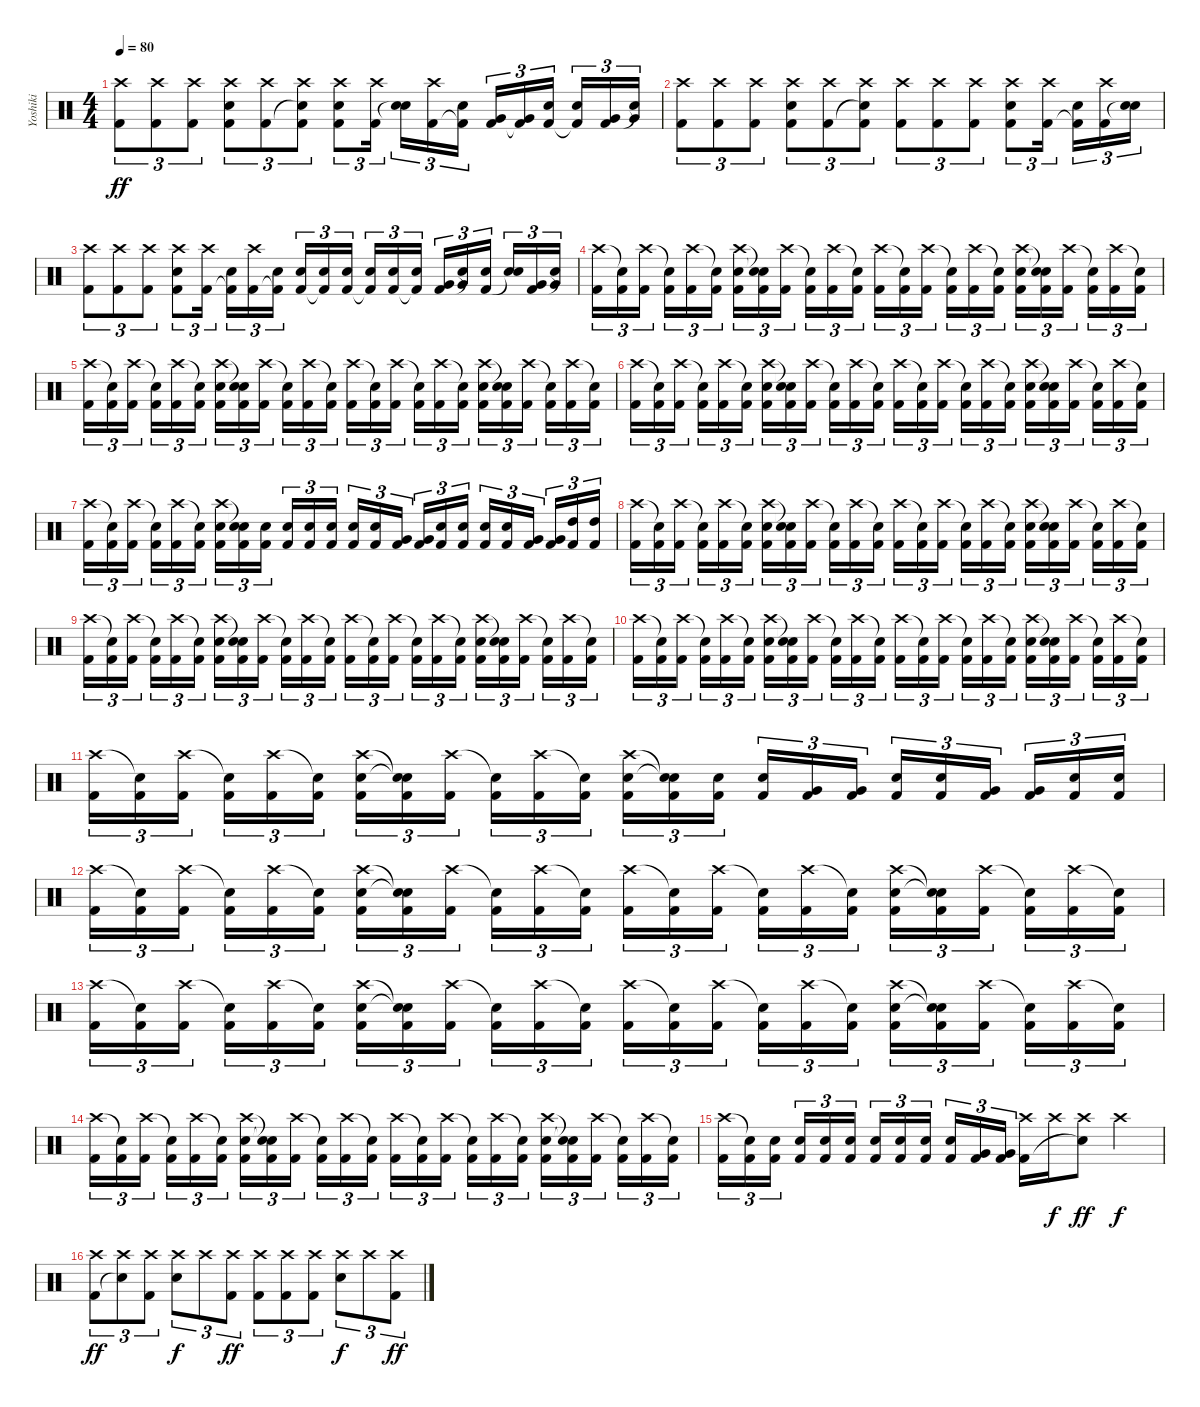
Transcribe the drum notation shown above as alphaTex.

\track ("Yoshiki" "Yoshiki") {instrument percussion}
\staff {score}
\articulation defaults
\ts (4 4)
\tempo 80
\clef neutral
\ks c
("Crash high (hit)" "Kick (hit) 2").8{tu (3 2) dy ff} ("Crash high (hit)" "Kick (hit) 2").8{tu (3 2)} ("Crash high (hit)" "Kick (hit) 2").8{tu (3 2)} ("Crash high (hit)" "Snare (hit) 2" "Kick (hit) 2").8{tu (3 2)} ("Crash high (hit)" "Kick (hit) 2").8{tu (3 2)} ("Crash high (hit)" "Snare (hit)"{t} "Kick (hit) 2").8{tu (3 2)} ("Crash high (hit)" "Snare (hit) 2" "Kick (hit) 2").8{tu (3 2)} ("Crash high (hit)" "Kick (hit) 2").16{tu (3 2)} ("Snare (hit) 2" "Snare (hit)"{t}).16{tu (3 2)} ("Crash high (hit)" "Kick (hit) 2").16{tu (3 2)} ("Snare (hit) 2" "Kick (hit) 2"{t}).16{tu (3 2)} ("Very Low Tom (hit)" "Kick (hit) 2").16{tu (3 2)} ("Very Low Tom (hit)" "Kick (hit) 2"{t}).16{tu (3 2)} ("Snare (hit) 2" "Kick (hit) 2").16{tu (3 2)} ("Snare (hit) 2" "Kick (hit) 2"{t}).16{tu (3 2)} ("Very Low Tom (hit)" "Kick (hit) 2").16{tu (3 2)} ("Very Low Tom (hit)" "Snare (hit)"{t}).16{tu (3 2)} |
("Crash high (hit)" "Kick (hit) 2").8{tu (3 2)} ("Crash high (hit)" "Kick (hit) 2").8{tu (3 2)} ("Crash high (hit)" "Kick (hit) 2").8{tu (3 2)} ("Crash high (hit)" "Snare (hit) 2" "Kick (hit) 2").8{tu (3 2)} ("Crash high (hit)" "Kick (hit) 2").8{tu (3 2)} ("Crash high (hit)" "Snare (hit)"{t} "Kick (hit) 2").8{tu (3 2)} ("Crash high (hit)" "Kick (hit) 2").8{tu (3 2)} ("Crash high (hit)" "Kick (hit) 2").8{tu (3 2)} ("Crash high (hit)" "Kick (hit) 2").8{tu (3 2)} ("Crash high (hit)" "Snare (hit) 2" "Kick (hit) 2").8{tu (3 2)} ("Crash high (hit)" "Kick (hit) 2").16{tu (3 2)} ("Snare (hit) 2" "Kick (hit) 2"{t}).16{tu (3 2)} ("Crash high (hit)" "Kick (hit) 2").16{tu (3 2)} ("Snare (hit) 2" "Snare (hit)"{t}).16{tu (3 2)} |
("Crash high (hit)" "Kick (hit) 2").8{tu (3 2)} ("Crash high (hit)" "Kick (hit) 2").8{tu (3 2)} ("Crash high (hit)" "Kick (hit) 2").8{tu (3 2)} ("Crash high (hit)" "Snare (hit) 2" "Kick (hit) 2").8{tu (3 2)} ("Crash high (hit)" "Kick (hit) 2").16{tu (3 2)} ("Snare (hit) 2" "Kick (hit) 2"{t}).16{tu (3 2)} ("Crash high (hit)" "Kick (hit) 2").16{tu (3 2)} ("Snare (hit) 2" "Kick (hit) 2"{t}).16{tu (3 2)} ("Snare (hit) 2" "Kick (hit) 2").16{tu (3 2)} ("Snare (hit) 2" "Kick (hit) 2"{t}).16{tu (3 2)} ("Snare (hit) 2" "Kick (hit) 2").16{tu (3 2)} ("Snare (hit) 2" "Kick (hit) 2"{t}).16{tu (3 2)} ("Snare (hit) 2" "Kick (hit) 2").16{tu (3 2)} ("Snare (hit) 2" "Kick (hit) 2"{t}).16{tu (3 2)} ("Very Low Tom (hit)" "Kick (hit) 2").16{tu (3 2)} ("Very Low Tom (hit)" "Snare (hit)"{t}).16{tu (3 2)} ("Snare (hit) 2" "Kick (hit) 2").16{tu (3 2)} ("Snare (hit) 2" "Snare (hit)"{t}).16{tu (3 2)} ("Very Low Tom (hit)" "Kick (hit) 2").16{tu (3 2)} ("Very Low Tom (hit)" "Snare (hit)"{t}).16{tu (3 2)} |
("Crash high (hit)" "Kick (hit) 2").16{tu (3 2)} ("Snare (hit)"{t} "Kick (hit) 2").16{tu (3 2)} ("Crash high (hit)" "Kick (hit) 2").16{tu (3 2)} ("Snare (hit)"{t} "Kick (hit) 2").16{tu (3 2)} ("Crash high (hit)" "Kick (hit) 2").16{tu (3 2)} ("Snare (hit)"{t} "Kick (hit) 2").16{tu (3 2)} ("Crash high (hit)" "Snare (hit) 2" "Kick (hit) 2").16{tu (3 2)} ("Snare (hit)"{t} "Snare (hit)"{t} "Kick (hit) 2").16{tu (3 2)} ("Crash high (hit)" "Kick (hit) 2").16{tu (3 2)} ("Snare (hit)"{t} "Kick (hit) 2").16{tu (3 2)} ("Crash high (hit)" "Kick (hit) 2").16{tu (3 2)} ("Snare (hit)"{t} "Kick (hit) 2").16{tu (3 2)} ("Crash high (hit)" "Kick (hit) 2").16{tu (3 2)} ("Snare (hit)"{t} "Kick (hit) 2").16{tu (3 2)} ("Crash high (hit)" "Kick (hit) 2").16{tu (3 2)} ("Snare (hit)"{t} "Kick (hit) 2").16{tu (3 2)} ("Crash high (hit)" "Kick (hit) 2").16{tu (3 2)} ("Snare (hit)"{t} "Kick (hit) 2").16{tu (3 2)} ("Crash high (hit)" "Snare (hit) 2" "Kick (hit) 2").16{tu (3 2)} ("Snare (hit)"{t} "Snare (hit)"{t} "Kick (hit) 2").16{tu (3 2)} ("Crash high (hit)" "Kick (hit) 2").16{tu (3 2)} ("Snare (hit)"{t} "Kick (hit) 2").16{tu (3 2)} ("Crash high (hit)" "Kick (hit) 2").16{tu (3 2)} ("Snare (hit)"{t} "Kick (hit) 2").16{tu (3 2)} |
("Crash high (hit)" "Kick (hit) 2").16{tu (3 2)} ("Snare (hit)"{t} "Kick (hit) 2").16{tu (3 2)} ("Crash high (hit)" "Kick (hit) 2").16{tu (3 2)} ("Snare (hit)"{t} "Kick (hit) 2").16{tu (3 2)} ("Crash high (hit)" "Kick (hit) 2").16{tu (3 2)} ("Snare (hit)"{t} "Kick (hit) 2").16{tu (3 2)} ("Crash high (hit)" "Snare (hit) 2" "Kick (hit) 2").16{tu (3 2)} ("Snare (hit)"{t} "Snare (hit)"{t} "Kick (hit) 2").16{tu (3 2)} ("Crash high (hit)" "Kick (hit) 2").16{tu (3 2)} ("Snare (hit)"{t} "Kick (hit) 2").16{tu (3 2)} ("Crash high (hit)" "Kick (hit) 2").16{tu (3 2)} ("Snare (hit)"{t} "Kick (hit) 2").16{tu (3 2)} ("Crash high (hit)" "Kick (hit) 2").16{tu (3 2)} ("Snare (hit)"{t} "Kick (hit) 2").16{tu (3 2)} ("Crash high (hit)" "Kick (hit) 2").16{tu (3 2)} ("Snare (hit)"{t} "Kick (hit) 2").16{tu (3 2)} ("Crash high (hit)" "Kick (hit) 2").16{tu (3 2)} ("Snare (hit)"{t} "Kick (hit) 2").16{tu (3 2)} ("Crash high (hit)" "Snare (hit) 2" "Kick (hit) 2").16{tu (3 2)} ("Snare (hit)"{t} "Snare (hit)"{t} "Kick (hit) 2").16{tu (3 2)} ("Crash high (hit)" "Kick (hit) 2").16{tu (3 2)} ("Snare (hit)"{t} "Kick (hit) 2").16{tu (3 2)} ("Crash high (hit)" "Kick (hit) 2").16{tu (3 2)} ("Snare (hit)"{t} "Kick (hit) 2").16{tu (3 2)} |
("Crash high (hit)" "Kick (hit) 2").16{tu (3 2)} ("Snare (hit)"{t} "Kick (hit) 2").16{tu (3 2)} ("Crash high (hit)" "Kick (hit) 2").16{tu (3 2)} ("Snare (hit)"{t} "Kick (hit) 2").16{tu (3 2)} ("Crash high (hit)" "Kick (hit) 2").16{tu (3 2)} ("Snare (hit)"{t} "Kick (hit) 2").16{tu (3 2)} ("Crash high (hit)" "Snare (hit) 2" "Kick (hit) 2").16{tu (3 2)} ("Snare (hit)"{t} "Snare (hit)"{t} "Kick (hit) 2").16{tu (3 2)} ("Crash high (hit)" "Kick (hit) 2").16{tu (3 2)} ("Snare (hit)"{t} "Kick (hit) 2").16{tu (3 2)} ("Crash high (hit)" "Kick (hit) 2").16{tu (3 2)} ("Snare (hit)"{t} "Kick (hit) 2").16{tu (3 2)} ("Crash high (hit)" "Kick (hit) 2").16{tu (3 2)} ("Snare (hit)"{t} "Kick (hit) 2").16{tu (3 2)} ("Crash high (hit)" "Kick (hit) 2").16{tu (3 2)} ("Snare (hit)"{t} "Kick (hit) 2").16{tu (3 2)} ("Crash high (hit)" "Kick (hit) 2").16{tu (3 2)} ("Snare (hit)"{t} "Kick (hit) 2").16{tu (3 2)} ("Crash high (hit)" "Snare (hit) 2" "Kick (hit) 2").16{tu (3 2)} ("Snare (hit)"{t} "Snare (hit)"{t} "Kick (hit) 2").16{tu (3 2)} ("Crash high (hit)" "Kick (hit) 2").16{tu (3 2)} ("Snare (hit)"{t} "Kick (hit) 2").16{tu (3 2)} ("Crash high (hit)" "Kick (hit) 2").16{tu (3 2)} ("Snare (hit)"{t} "Kick (hit) 2").16{tu (3 2)} |
("Crash high (hit)" "Kick (hit) 2").16{tu (3 2)} ("Snare (hit)"{t} "Kick (hit) 2").16{tu (3 2)} ("Crash high (hit)" "Kick (hit) 2").16{tu (3 2)} ("Snare (hit)"{t} "Kick (hit) 2").16{tu (3 2)} ("Crash high (hit)" "Kick (hit) 2").16{tu (3 2)} ("Snare (hit)"{t} "Kick (hit) 2").16{tu (3 2)} ("Crash high (hit)" "Snare (hit) 2" "Kick (hit) 2").16{tu (3 2)} ("Snare (hit)"{t} "Snare (hit)"{t} "Kick (hit) 2").16{tu (3 2)} ("Snare (hit) 2" "Kick (hit) 2").16{tu (3 2)} ("Snare (hit) 2" "Kick (hit) 2").16{tu (3 2)} ("Snare (hit) 2" "Kick (hit) 2").16{tu (3 2)} ("Snare (hit) 2" "Kick (hit) 2").16{tu (3 2)} ("Snare (hit) 2" "Kick (hit) 2").16{tu (3 2)} ("Snare (hit) 2" "Kick (hit) 2").16{tu (3 2)} ("Very Low Tom (hit)" "Kick (hit) 2").16{tu (3 2)} ("Very Low Tom (hit)" "Kick (hit) 2").16{tu (3 2)} ("Snare (hit) 2" "Kick (hit) 2").16{tu (3 2)} ("Snare (hit) 2" "Kick (hit) 2").16{tu (3 2)} ("Snare (hit) 2" "Kick (hit) 2").16{tu (3 2)} ("Snare (hit) 2" "Kick (hit) 2").16{tu (3 2)} ("Very Low Tom (hit)" "Kick (hit) 2").16{tu (3 2)} ("Very Low Tom (hit)" "Kick (hit) 2").16{tu (3 2)} ("High Tom (hit)" "Kick (hit) 2").16{tu (3 2)} ("High Tom (hit)" "Kick (hit) 2").16{tu (3 2)} |
("Crash high (hit)" "Kick (hit) 2").16{tu (3 2)} ("Snare (hit)"{t} "Kick (hit) 2").16{tu (3 2)} ("Crash high (hit)" "Kick (hit) 2").16{tu (3 2)} ("Snare (hit)"{t} "Kick (hit) 2").16{tu (3 2)} ("Crash high (hit)" "Kick (hit) 2").16{tu (3 2)} ("Snare (hit)"{t} "Kick (hit) 2").16{tu (3 2)} ("Crash high (hit)" "Snare (hit) 2" "Kick (hit) 2").16{tu (3 2)} ("Snare (hit)"{t} "Snare (hit)"{t} "Kick (hit) 2").16{tu (3 2)} ("Crash high (hit)" "Kick (hit) 2").16{tu (3 2)} ("Snare (hit)"{t} "Kick (hit) 2").16{tu (3 2)} ("Crash high (hit)" "Kick (hit) 2").16{tu (3 2)} ("Snare (hit)"{t} "Kick (hit) 2").16{tu (3 2)} ("Crash high (hit)" "Kick (hit) 2").16{tu (3 2)} ("Snare (hit)"{t} "Kick (hit) 2").16{tu (3 2)} ("Crash high (hit)" "Kick (hit) 2").16{tu (3 2)} ("Snare (hit)"{t} "Kick (hit) 2").16{tu (3 2)} ("Crash high (hit)" "Kick (hit) 2").16{tu (3 2)} ("Snare (hit)"{t} "Kick (hit) 2").16{tu (3 2)} ("Crash high (hit)" "Snare (hit) 2" "Kick (hit) 2").16{tu (3 2)} ("Snare (hit)"{t} "Snare (hit)"{t} "Kick (hit) 2").16{tu (3 2)} ("Crash high (hit)" "Kick (hit) 2").16{tu (3 2)} ("Snare (hit)"{t} "Kick (hit) 2").16{tu (3 2)} ("Crash high (hit)" "Kick (hit) 2").16{tu (3 2)} ("Snare (hit)"{t} "Kick (hit) 2").16{tu (3 2)} |
("Crash high (hit)" "Kick (hit) 2").16{tu (3 2)} ("Snare (hit)"{t} "Kick (hit) 2").16{tu (3 2)} ("Crash high (hit)" "Kick (hit) 2").16{tu (3 2)} ("Snare (hit)"{t} "Kick (hit) 2").16{tu (3 2)} ("Crash high (hit)" "Kick (hit) 2").16{tu (3 2)} ("Snare (hit)"{t} "Kick (hit) 2").16{tu (3 2)} ("Crash high (hit)" "Snare (hit) 2" "Kick (hit) 2").16{tu (3 2)} ("Snare (hit)"{t} "Snare (hit)"{t} "Kick (hit) 2").16{tu (3 2)} ("Crash high (hit)" "Kick (hit) 2").16{tu (3 2)} ("Snare (hit)"{t} "Kick (hit) 2").16{tu (3 2)} ("Crash high (hit)" "Kick (hit) 2").16{tu (3 2)} ("Snare (hit)"{t} "Kick (hit) 2").16{tu (3 2)} ("Crash high (hit)" "Kick (hit) 2").16{tu (3 2)} ("Snare (hit)"{t} "Kick (hit) 2").16{tu (3 2)} ("Crash high (hit)" "Kick (hit) 2").16{tu (3 2)} ("Snare (hit)"{t} "Kick (hit) 2").16{tu (3 2)} ("Crash high (hit)" "Kick (hit) 2").16{tu (3 2)} ("Snare (hit)"{t} "Kick (hit) 2").16{tu (3 2)} ("Crash high (hit)" "Snare (hit) 2" "Kick (hit) 2").16{tu (3 2)} ("Snare (hit)"{t} "Snare (hit)"{t} "Kick (hit) 2").16{tu (3 2)} ("Crash high (hit)" "Kick (hit) 2").16{tu (3 2)} ("Snare (hit)"{t} "Kick (hit) 2").16{tu (3 2)} ("Crash high (hit)" "Kick (hit) 2").16{tu (3 2)} ("Snare (hit)"{t} "Kick (hit) 2").16{tu (3 2)} |
("Crash high (hit)" "Kick (hit) 2").16{tu (3 2)} ("Snare (hit)"{t} "Kick (hit) 2").16{tu (3 2)} ("Crash high (hit)" "Kick (hit) 2").16{tu (3 2)} ("Snare (hit)"{t} "Kick (hit) 2").16{tu (3 2)} ("Crash high (hit)" "Kick (hit) 2").16{tu (3 2)} ("Snare (hit)"{t} "Kick (hit) 2").16{tu (3 2)} ("Crash high (hit)" "Snare (hit) 2" "Kick (hit) 2").16{tu (3 2)} ("Snare (hit)"{t} "Snare (hit)"{t} "Kick (hit) 2").16{tu (3 2)} ("Crash high (hit)" "Kick (hit) 2").16{tu (3 2)} ("Snare (hit)"{t} "Kick (hit) 2").16{tu (3 2)} ("Crash high (hit)" "Kick (hit) 2").16{tu (3 2)} ("Snare (hit)"{t} "Kick (hit) 2").16{tu (3 2)} ("Crash high (hit)" "Kick (hit) 2").16{tu (3 2)} ("Snare (hit)"{t} "Kick (hit) 2").16{tu (3 2)} ("Crash high (hit)" "Kick (hit) 2").16{tu (3 2)} ("Snare (hit)"{t} "Kick (hit) 2").16{tu (3 2)} ("Crash high (hit)" "Kick (hit) 2").16{tu (3 2)} ("Snare (hit)"{t} "Kick (hit) 2").16{tu (3 2)} ("Crash high (hit)" "Snare (hit) 2" "Kick (hit) 2").16{tu (3 2)} ("Snare (hit)"{t} "Snare (hit)"{t} "Kick (hit) 2").16{tu (3 2)} ("Crash high (hit)" "Kick (hit) 2").16{tu (3 2)} ("Snare (hit)"{t} "Kick (hit) 2").16{tu (3 2)} ("Crash high (hit)" "Kick (hit) 2").16{tu (3 2)} ("Snare (hit)"{t} "Kick (hit) 2").16{tu (3 2)} |
("Crash high (hit)" "Kick (hit) 2").16{tu (3 2)} ("Snare (hit)"{t} "Kick (hit) 2").16{tu (3 2)} ("Crash high (hit)" "Kick (hit) 2").16{tu (3 2)} ("Snare (hit)"{t} "Kick (hit) 2").16{tu (3 2)} ("Crash high (hit)" "Kick (hit) 2").16{tu (3 2)} ("Snare (hit)"{t} "Kick (hit) 2").16{tu (3 2)} ("Crash high (hit)" "Snare (hit) 2" "Kick (hit) 2").16{tu (3 2)} ("Snare (hit)"{t} "Snare (hit)"{t} "Kick (hit) 2").16{tu (3 2)} ("Crash high (hit)" "Kick (hit) 2").16{tu (3 2)} ("Snare (hit)"{t} "Kick (hit) 2").16{tu (3 2)} ("Crash high (hit)" "Kick (hit) 2").16{tu (3 2)} ("Snare (hit)"{t} "Kick (hit) 2").16{tu (3 2)} ("Crash high (hit)" "Snare (hit) 2" "Kick (hit) 2").16{tu (3 2)} ("Snare (hit)"{t} "Snare (hit)"{t} "Kick (hit) 2").16{tu (3 2)} ("Snare (hit) 2" "Kick (hit) 2").16{tu (3 2)} ("Snare (hit) 2" "Kick (hit) 2").16{tu (3 2)} ("Very Low Tom (hit)" "Kick (hit) 2").16{tu (3 2)} ("Very Low Tom (hit)" "Kick (hit) 2").16{tu (3 2)} ("Snare (hit) 2" "Kick (hit) 2").16{tu (3 2)} ("Snare (hit) 2" "Kick (hit) 2").16{tu (3 2)} ("Very Low Tom (hit)" "Kick (hit) 2").16{tu (3 2)} ("Very Low Tom (hit)" "Kick (hit) 2").16{tu (3 2)} ("Snare (hit) 2" "Kick (hit) 2").16{tu (3 2)} ("Snare (hit) 2" "Kick (hit) 2").16{tu (3 2)} |
("Crash high (hit)" "Kick (hit) 2").16{tu (3 2)} ("Snare (hit)"{t} "Kick (hit) 2").16{tu (3 2)} ("Crash high (hit)" "Kick (hit) 2").16{tu (3 2)} ("Snare (hit)"{t} "Kick (hit) 2").16{tu (3 2)} ("Crash high (hit)" "Kick (hit) 2").16{tu (3 2)} ("Snare (hit)"{t} "Kick (hit) 2").16{tu (3 2)} ("Crash high (hit)" "Snare (hit) 2" "Kick (hit) 2").16{tu (3 2)} ("Snare (hit)"{t} "Snare (hit)"{t} "Kick (hit) 2").16{tu (3 2)} ("Crash high (hit)" "Kick (hit) 2").16{tu (3 2)} ("Snare (hit)"{t} "Kick (hit) 2").16{tu (3 2)} ("Crash high (hit)" "Kick (hit) 2").16{tu (3 2)} ("Snare (hit)"{t} "Kick (hit) 2").16{tu (3 2)} ("Crash high (hit)" "Kick (hit) 2").16{tu (3 2)} ("Snare (hit)"{t} "Kick (hit) 2").16{tu (3 2)} ("Crash high (hit)" "Kick (hit) 2").16{tu (3 2)} ("Snare (hit)"{t} "Kick (hit) 2").16{tu (3 2)} ("Crash high (hit)" "Kick (hit) 2").16{tu (3 2)} ("Snare (hit)"{t} "Kick (hit) 2").16{tu (3 2)} ("Crash high (hit)" "Snare (hit) 2" "Kick (hit) 2").16{tu (3 2)} ("Snare (hit)"{t} "Snare (hit)"{t} "Kick (hit) 2").16{tu (3 2)} ("Crash high (hit)" "Kick (hit) 2").16{tu (3 2)} ("Snare (hit)"{t} "Kick (hit) 2").16{tu (3 2)} ("Crash high (hit)" "Kick (hit) 2").16{tu (3 2)} ("Snare (hit)"{t} "Kick (hit) 2").16{tu (3 2)} |
("Crash high (hit)" "Kick (hit) 2").16{tu (3 2)} ("Snare (hit)"{t} "Kick (hit) 2").16{tu (3 2)} ("Crash high (hit)" "Kick (hit) 2").16{tu (3 2)} ("Snare (hit)"{t} "Kick (hit) 2").16{tu (3 2)} ("Crash high (hit)" "Kick (hit) 2").16{tu (3 2)} ("Snare (hit)"{t} "Kick (hit) 2").16{tu (3 2)} ("Crash high (hit)" "Snare (hit) 2" "Kick (hit) 2").16{tu (3 2)} ("Snare (hit)"{t} "Snare (hit)"{t} "Kick (hit) 2").16{tu (3 2)} ("Crash high (hit)" "Kick (hit) 2").16{tu (3 2)} ("Snare (hit)"{t} "Kick (hit) 2").16{tu (3 2)} ("Crash high (hit)" "Kick (hit) 2").16{tu (3 2)} ("Snare (hit)"{t} "Kick (hit) 2").16{tu (3 2)} ("Crash high (hit)" "Kick (hit) 2").16{tu (3 2)} ("Snare (hit)"{t} "Kick (hit) 2").16{tu (3 2)} ("Crash high (hit)" "Kick (hit) 2").16{tu (3 2)} ("Snare (hit)"{t} "Kick (hit) 2").16{tu (3 2)} ("Crash high (hit)" "Kick (hit) 2").16{tu (3 2)} ("Snare (hit)"{t} "Kick (hit) 2").16{tu (3 2)} ("Crash high (hit)" "Snare (hit) 2" "Kick (hit) 2").16{tu (3 2)} ("Snare (hit)"{t} "Snare (hit)"{t} "Kick (hit) 2").16{tu (3 2)} ("Crash high (hit)" "Kick (hit) 2").16{tu (3 2)} ("Snare (hit)"{t} "Kick (hit) 2").16{tu (3 2)} ("Crash high (hit)" "Kick (hit) 2").16{tu (3 2)} ("Snare (hit)"{t} "Kick (hit) 2").16{tu (3 2)} |
("Crash high (hit)" "Kick (hit) 2").16{tu (3 2)} ("Snare (hit)"{t} "Kick (hit) 2").16{tu (3 2)} ("Crash high (hit)" "Kick (hit) 2").16{tu (3 2)} ("Snare (hit)"{t} "Kick (hit) 2").16{tu (3 2)} ("Crash high (hit)" "Kick (hit) 2").16{tu (3 2)} ("Snare (hit)"{t} "Kick (hit) 2").16{tu (3 2)} ("Crash high (hit)" "Snare (hit) 2" "Kick (hit) 2").16{tu (3 2)} ("Snare (hit)"{t} "Snare (hit)"{t} "Kick (hit) 2").16{tu (3 2)} ("Crash high (hit)" "Kick (hit) 2").16{tu (3 2)} ("Snare (hit)"{t} "Kick (hit) 2").16{tu (3 2)} ("Crash high (hit)" "Kick (hit) 2").16{tu (3 2)} ("Snare (hit)"{t} "Kick (hit) 2").16{tu (3 2)} ("Crash high (hit)" "Kick (hit) 2").16{tu (3 2)} ("Snare (hit)"{t} "Kick (hit) 2").16{tu (3 2)} ("Crash high (hit)" "Kick (hit) 2").16{tu (3 2)} ("Snare (hit)"{t} "Kick (hit) 2").16{tu (3 2)} ("Crash high (hit)" "Kick (hit) 2").16{tu (3 2)} ("Snare (hit)"{t} "Kick (hit) 2").16{tu (3 2)} ("Crash high (hit)" "Snare (hit) 2" "Kick (hit) 2").16{tu (3 2)} ("Snare (hit)"{t} "Snare (hit)"{t} "Kick (hit) 2").16{tu (3 2)} ("Crash high (hit)" "Kick (hit) 2").16{tu (3 2)} ("Snare (hit)"{t} "Kick (hit) 2").16{tu (3 2)} ("Crash high (hit)" "Kick (hit) 2").16{tu (3 2)} ("Snare (hit)"{t} "Kick (hit) 2").16{tu (3 2)} |
("Crash high (hit)" "Kick (hit) 2").16{tu (3 2)} ("Snare (hit)"{t} "Kick (hit) 2").16{tu (3 2)} ("Snare (hit) 2" "Kick (hit) 2").16{tu (3 2)} ("Snare (hit) 2" "Kick (hit) 2").16{tu (3 2)} ("Snare (hit) 2" "Kick (hit) 2").16{tu (3 2)} ("Snare (hit) 2" "Kick (hit) 2").16{tu (3 2)} ("Snare (hit) 2" "Kick (hit) 2").16{tu (3 2)} ("Snare (hit) 2" "Kick (hit) 2").16{tu (3 2)} ("Snare (hit) 2" "Kick (hit) 2").16{tu (3 2)} ("Snare (hit) 2" "Kick (hit) 2").16{tu (3 2)} ("Very Low Tom (hit)" "Kick (hit) 2").16{tu (3 2)} ("Very Low Tom (hit)" "Kick (hit) 2").16{tu (3 2)} ("Crash high (hit)" "Kick (hit) 2").16 "Crash high (hit)".16{dy f} ("Crash high (hit)" "Snare (hit)"{t}).8{dy ff} "Crash high (hit)".4{dy f} |
("Crash high (hit)" "Kick (hit) 2").8{tu (3 2) dy ff} ("Crash high (hit)" "Snare (hit)"{t}).8{tu (3 2)} ("Crash high (hit)" "Kick (hit) 2").8{tu (3 2)} ("Crash high (hit)" "Snare (hit) 2").8{tu (3 2) dy f} "Crash high (hit)".8{tu (3 2)} ("Crash high (hit)" "Kick (hit) 2").8{tu (3 2) dy ff} ("Crash high (hit)" "Kick (hit) 2").8{tu (3 2)} ("Crash high (hit)" "Kick (hit) 2").8{tu (3 2)} ("Crash high (hit)" "Kick (hit) 2").8{tu (3 2)} ("Crash high (hit)" "Snare (hit) 2").8{tu (3 2) dy f} "Crash high (hit)".8{tu (3 2)} ("Crash high (hit)" "Kick (hit) 2").8{tu (3 2) dy ff}
